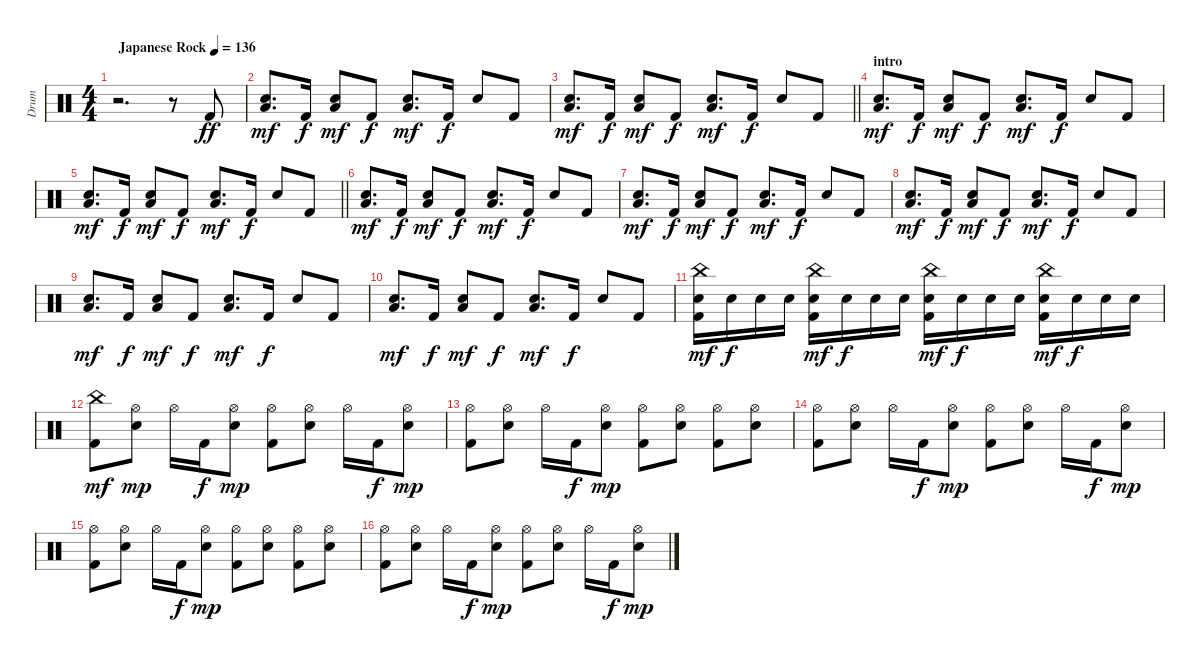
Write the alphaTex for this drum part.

\track ("Drum" "Drum") {instrument percussion}
\staff {score}
\articulation defaults
\ts (4 4)
\tempo (136 "Japanese Rock")
\clef neutral
\ks c
r.2{d dy ff} r.8 "Kick (hit) 2".8 |
("Low Tom (hit)" "Electric Snare (hit)").8{d dy mf} "Kick (hit) 2".16{dy f} ("Low Tom (hit)" "Electric Snare (hit)").8{dy mf} "Kick (hit) 2".8{dy f} ("Low Tom (hit)" "Electric Snare (hit)").8{d dy mf} "Kick (hit) 2".16{dy f} "Electric Snare (hit)".8 "Kick (hit) 2".8 |
\barLineRight lightlight
("Low Tom (hit)" "Electric Snare (hit)").8{d dy mf} "Kick (hit) 2".16{dy f} ("Low Tom (hit)" "Electric Snare (hit)").8{dy mf} "Kick (hit) 2".8{dy f} ("Low Tom (hit)" "Electric Snare (hit)").8{d dy mf} "Kick (hit) 2".16{dy f} "Electric Snare (hit)".8 "Kick (hit) 2".8 |
\section ("" "intro")
("Low Tom (hit)" "Electric Snare (hit)").8{d dy mf} "Kick (hit) 2".16{dy f} ("Low Tom (hit)" "Electric Snare (hit)").8{dy mf} "Kick (hit) 2".8{dy f} ("Low Tom (hit)" "Electric Snare (hit)").8{d dy mf} "Kick (hit) 2".16{dy f} "Electric Snare (hit)".8 "Kick (hit) 2".8 |
\barLineRight lightlight
("Low Tom (hit)" "Electric Snare (hit)").8{d dy mf} "Kick (hit) 2".16{dy f} ("Low Tom (hit)" "Electric Snare (hit)").8{dy mf} "Kick (hit) 2".8{dy f} ("Low Tom (hit)" "Electric Snare (hit)").8{d dy mf} "Kick (hit) 2".16{dy f} "Electric Snare (hit)".8 "Kick (hit) 2".8 |
("Low Tom (hit)" "Electric Snare (hit)").8{d dy mf} "Kick (hit) 2".16{dy f} ("Low Tom (hit)" "Electric Snare (hit)").8{dy mf} "Kick (hit) 2".8{dy f} ("Low Tom (hit)" "Electric Snare (hit)").8{d dy mf} "Kick (hit) 2".16{dy f} "Electric Snare (hit)".8 "Kick (hit) 2".8 |
("Low Tom (hit)" "Electric Snare (hit)").8{d dy mf} "Kick (hit) 2".16{dy f} ("Low Tom (hit)" "Electric Snare (hit)").8{dy mf} "Kick (hit) 2".8{dy f} ("Low Tom (hit)" "Electric Snare (hit)").8{d dy mf} "Kick (hit) 2".16{dy f} "Electric Snare (hit)".8 "Kick (hit) 2".8 |
("Low Tom (hit)" "Electric Snare (hit)").8{d dy mf} "Kick (hit) 2".16{dy f} ("Low Tom (hit)" "Electric Snare (hit)").8{dy mf} "Kick (hit) 2".8{dy f} ("Low Tom (hit)" "Electric Snare (hit)").8{d dy mf} "Kick (hit) 2".16{dy f} "Electric Snare (hit)".8 "Kick (hit) 2".8 |
("Low Tom (hit)" "Electric Snare (hit)").8{d dy mf} "Kick (hit) 2".16{dy f} ("Low Tom (hit)" "Electric Snare (hit)").8{dy mf} "Kick (hit) 2".8{dy f} ("Low Tom (hit)" "Electric Snare (hit)").8{d dy mf} "Kick (hit) 2".16{dy f} "Electric Snare (hit)".8 "Kick (hit) 2".8 |
("Low Tom (hit)" "Electric Snare (hit)").8{d dy mf} "Kick (hit) 2".16{dy f} ("Low Tom (hit)" "Electric Snare (hit)").8{dy mf} "Kick (hit) 2".8{dy f} ("Low Tom (hit)" "Electric Snare (hit)").8{d dy mf} "Kick (hit) 2".16{dy f} "Electric Snare (hit)".8 "Kick (hit) 2".8 |
("Electric Snare (hit)" "Kick (hit) 2" "China (hit)").16{dy mf} "Electric Snare (hit)".16{dy f} "Electric Snare (hit)".16 "Electric Snare (hit)".16 ("Electric Snare (hit)" "Kick (hit) 2" "China (hit)").16{dy mf} "Electric Snare (hit)".16{dy f} "Electric Snare (hit)".16 "Electric Snare (hit)".16 ("Electric Snare (hit)" "Kick (hit) 2" "China (hit)").16{dy mf} "Electric Snare (hit)".16{dy f} "Electric Snare (hit)".16 "Electric Snare (hit)".16 ("Electric Snare (hit)" "Kick (hit) 2" "China (hit)").16{dy mf} "Electric Snare (hit)".16{dy f} "Electric Snare (hit)".16 "Electric Snare (hit)".16 |
("Kick (hit) 2" "China (hit)").8{dy mf} ("Electric Snare (hit)" "Hi-Hat (open)").8{dy mp} "Hi-Hat (open)".16 "Kick (hit) 2".16{dy f} ("Electric Snare (hit)" "Hi-Hat (open)").8{dy mp} ("Kick (hit) 2" "Hi-Hat (open)").8 ("Electric Snare (hit)" "Hi-Hat (open)").8 "Hi-Hat (open)".16 "Kick (hit) 2".16{dy f} ("Electric Snare (hit)" "Hi-Hat (open)").8{dy mp} |
("Kick (hit) 2" "Hi-Hat (open)").8 ("Electric Snare (hit)" "Hi-Hat (open)").8 "Hi-Hat (open)".16 "Kick (hit) 2".16{dy f} ("Electric Snare (hit)" "Hi-Hat (open)").8{dy mp} ("Kick (hit) 2" "Hi-Hat (open)").8 ("Electric Snare (hit)" "Hi-Hat (open)").8 ("Kick (hit) 2" "Hi-Hat (open)").8 ("Electric Snare (hit)" "Hi-Hat (open)").8 |
("Kick (hit) 2" "Hi-Hat (open)").8 ("Electric Snare (hit)" "Hi-Hat (open)").8 "Hi-Hat (open)".16 "Kick (hit) 2".16{dy f} ("Electric Snare (hit)" "Hi-Hat (open)").8{dy mp} ("Kick (hit) 2" "Hi-Hat (open)").8 ("Electric Snare (hit)" "Hi-Hat (open)").8 "Hi-Hat (open)".16 "Kick (hit) 2".16{dy f} ("Electric Snare (hit)" "Hi-Hat (open)").8{dy mp} |
("Kick (hit) 2" "Hi-Hat (open)").8 ("Electric Snare (hit)" "Hi-Hat (open)").8 "Hi-Hat (open)".16 "Kick (hit) 2".16{dy f} ("Electric Snare (hit)" "Hi-Hat (open)").8{dy mp} ("Kick (hit) 2" "Hi-Hat (open)").8 ("Electric Snare (hit)" "Hi-Hat (open)").8 ("Kick (hit) 2" "Hi-Hat (open)").8 ("Electric Snare (hit)" "Hi-Hat (open)").8 |
("Kick (hit) 2" "Hi-Hat (open)").8 ("Electric Snare (hit)" "Hi-Hat (open)").8 "Hi-Hat (open)".16 "Kick (hit) 2".16{dy f} ("Electric Snare (hit)" "Hi-Hat (open)").8{dy mp} ("Kick (hit) 2" "Hi-Hat (open)").8 ("Electric Snare (hit)" "Hi-Hat (open)").8 "Hi-Hat (open)".16 "Kick (hit) 2".16{dy f} ("Electric Snare (hit)" "Hi-Hat (open)").8{dy mp}
